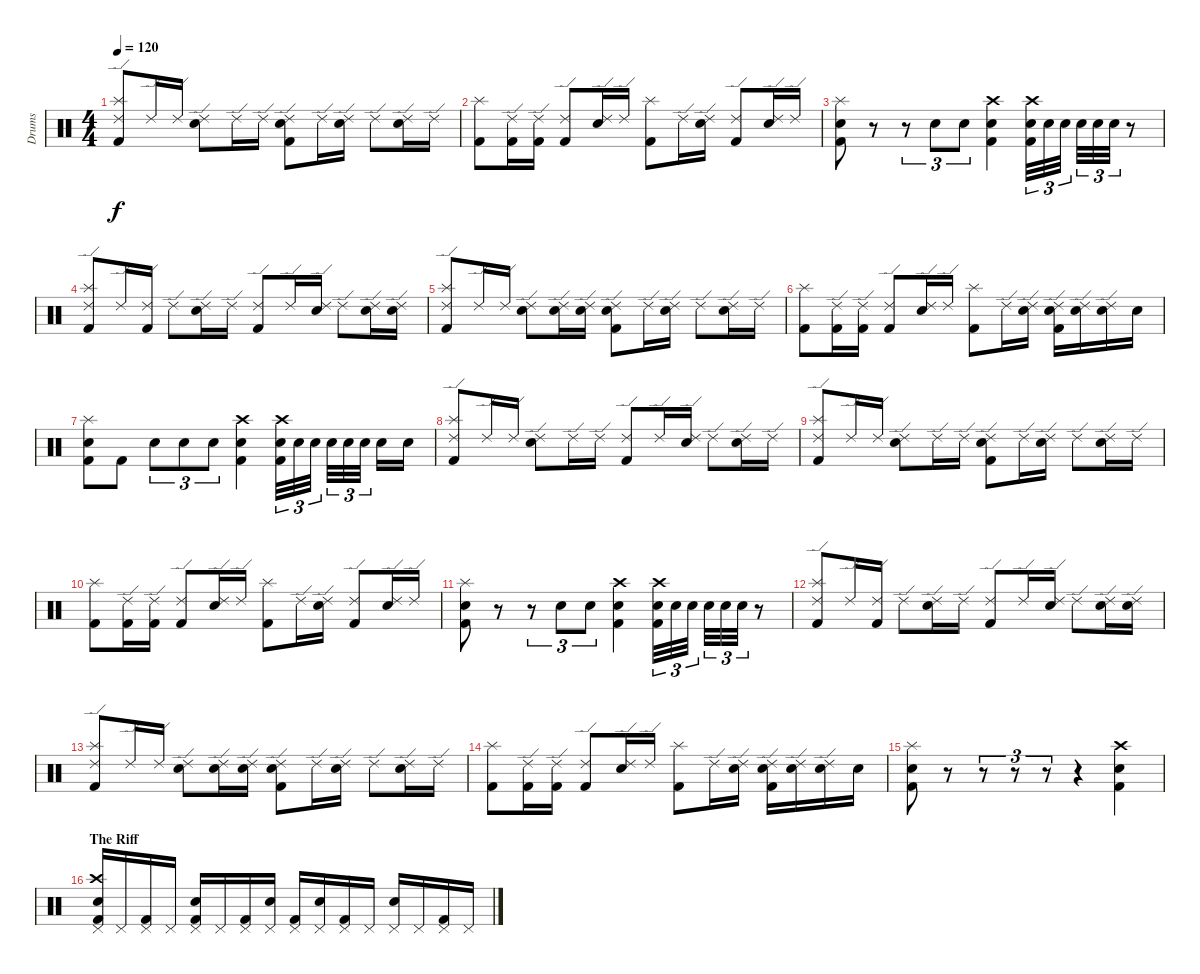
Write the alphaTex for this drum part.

\track ("Drums" "Drums") {instrument percussion}
\staff {score}
\articulation defaults
\ts (4 4)
\tempo 120
\clef neutral
\ks c
("Ride (edge) 2" "Splash (hit)" "Kick (hit) 2").8{dy f} "Ride (edge) 2".16 "Ride (edge) 2".16 ("Ride (edge) 2" "Electric Snare (hit)").8 "Ride (edge) 2".16 "Ride (edge) 2".16 ("Ride (edge) 2" "Electric Snare (hit)" "Kick (hit) 2").8 "Ride (edge) 2".16 ("Ride (edge) 2" "Electric Snare (hit)").16 "Ride (edge) 2".8 ("Ride (edge) 2" "Electric Snare (hit)").16 "Ride (edge) 2".16 |
("Splash (hit)" "Kick (hit) 2").8 ("Ride (edge) 2" "Kick (hit) 2").16 ("Ride (edge) 2" "Kick (hit) 2").16 ("Ride (edge) 2" "Kick (hit) 2").8 ("Ride (edge) 2" "Electric Snare (hit)").16 "Ride (edge) 2".16 ("Splash (hit)" "Kick (hit) 2").8 "Ride (edge) 2".16 ("Ride (edge) 2" "Electric Snare (hit)").16 ("Ride (edge) 2" "Kick (hit) 2").8 ("Ride (edge) 2" "Electric Snare (hit)").16 "Ride (edge) 2".16 |
("Splash (hit)" "Electric Snare (hit)" "Kick (hit) 2").8 r.8 r.8{tu (3 2)} "Electric Snare (hit)".8{tu (3 2)} "Electric Snare (hit)".8{tu (3 2)} ("Crash high (hit)" "Electric Snare (hit)" "Kick (hit) 2").4 ("Crash high (hit)" "Electric Snare (hit)" "Kick (hit) 2").32{tu (3 2)} "Electric Snare (hit)".32{tu (3 2)} "Electric Snare (hit)".32{tu (3 2)} "Electric Snare (hit)".32{tu (3 2)} "Electric Snare (hit)".32{tu (3 2)} "Electric Snare (hit)".32{tu (3 2)} r.8 |
("Ride (edge) 2" "Splash (hit)" "Kick (hit) 2").8 "Ride (edge) 2".16 ("Ride (edge) 2" "Kick (hit) 2").16 "Ride (edge) 2".8 ("Ride (edge) 2" "Electric Snare (hit)").16 "Ride (edge) 2".16 ("Ride (edge) 2" "Kick (hit) 2").8 "Ride (edge) 2".16 ("Ride (edge) 2" "Electric Snare (hit)").16 "Ride (edge) 2".8 ("Ride (edge) 2" "Electric Snare (hit)").16 ("Ride (edge) 2" "Electric Snare (hit)").16 |
("Ride (edge) 2" "Splash (hit)" "Kick (hit) 2").8 "Ride (edge) 2".16 "Ride (edge) 2".16 ("Ride (edge) 2" "Electric Snare (hit)").8 ("Ride (edge) 2" "Electric Snare (hit)").16 ("Ride (edge) 2" "Electric Snare (hit)").16 ("Ride (edge) 2" "Electric Snare (hit)" "Kick (hit) 2").8 "Ride (edge) 2".16 ("Ride (edge) 2" "Electric Snare (hit)").16 "Ride (edge) 2".8 ("Ride (edge) 2" "Electric Snare (hit)").16 "Ride (edge) 2".16 |
("Splash (hit)" "Kick (hit) 2").8 ("Ride (edge) 2" "Kick (hit) 2").16 ("Ride (edge) 2" "Kick (hit) 2").16 ("Ride (edge) 2" "Kick (hit) 2").8 ("Ride (edge) 2" "Electric Snare (hit)").16 "Ride (edge) 2".16 ("Splash (hit)" "Kick (hit) 2").8 "Ride (edge) 2".16 ("Ride (edge) 2" "Electric Snare (hit)").16 ("Ride (edge) 2" "Electric Snare (hit)" "Kick (hit) 2").16 ("Ride (edge) 2" "Electric Snare (hit)").16 ("Ride (edge) 2" "Electric Snare (hit)").16 "Electric Snare (hit)".16 |
("Splash (hit)" "Electric Snare (hit)" "Kick (hit) 2").8 "Kick (hit) 2".8 "Electric Snare (hit)".8{tu (3 2)} "Electric Snare (hit)".8{tu (3 2)} "Electric Snare (hit)".8{tu (3 2)} ("Crash high (hit)" "Electric Snare (hit)" "Kick (hit) 2").4 ("Crash high (hit)" "Electric Snare (hit)" "Kick (hit) 2").32{tu (3 2)} "Electric Snare (hit)".32{tu (3 2)} "Electric Snare (hit)".32{tu (3 2)} "Electric Snare (hit)".32{tu (3 2)} "Electric Snare (hit)".32{tu (3 2)} "Electric Snare (hit)".32{tu (3 2)} "Electric Snare (hit)".16 "Electric Snare (hit)".16 |
("Ride (edge) 2" "Splash (hit)" "Kick (hit) 2").8 "Ride (edge) 2".16 "Ride (edge) 2".16 ("Ride (edge) 2" "Electric Snare (hit)").8 "Ride (edge) 2".16 "Ride (edge) 2".16 ("Ride (edge) 2" "Kick (hit) 2").8 "Ride (edge) 2".16 ("Ride (edge) 2" "Electric Snare (hit)").16 "Ride (edge) 2".8 ("Ride (edge) 2" "Electric Snare (hit)").16 "Ride (edge) 2".16 |
("Ride (edge) 2" "Splash (hit)" "Kick (hit) 2").8 "Ride (edge) 2".16 "Ride (edge) 2".16 ("Ride (edge) 2" "Electric Snare (hit)").8 "Ride (edge) 2".16 "Ride (edge) 2".16 ("Ride (edge) 2" "Electric Snare (hit)" "Kick (hit) 2").8 "Ride (edge) 2".16 ("Ride (edge) 2" "Electric Snare (hit)").16 "Ride (edge) 2".8 ("Ride (edge) 2" "Electric Snare (hit)").16 "Ride (edge) 2".16 |
("Splash (hit)" "Kick (hit) 2").8 ("Ride (edge) 2" "Kick (hit) 2").16 ("Ride (edge) 2" "Kick (hit) 2").16 ("Ride (edge) 2" "Kick (hit) 2").8 ("Ride (edge) 2" "Electric Snare (hit)").16 "Ride (edge) 2".16 ("Splash (hit)" "Kick (hit) 2").8 "Ride (edge) 2".16 ("Ride (edge) 2" "Electric Snare (hit)").16 ("Ride (edge) 2" "Kick (hit) 2").8 ("Ride (edge) 2" "Electric Snare (hit)").16 "Ride (edge) 2".16 |
("Splash (hit)" "Electric Snare (hit)" "Kick (hit) 2").8 r.8 r.8{tu (3 2)} "Electric Snare (hit)".8{tu (3 2)} "Electric Snare (hit)".8{tu (3 2)} ("Crash high (hit)" "Electric Snare (hit)" "Kick (hit) 2").4 ("Crash high (hit)" "Electric Snare (hit)" "Kick (hit) 2").32{tu (3 2)} "Electric Snare (hit)".32{tu (3 2)} "Electric Snare (hit)".32{tu (3 2)} "Electric Snare (hit)".32{tu (3 2)} "Electric Snare (hit)".32{tu (3 2)} "Electric Snare (hit)".32{tu (3 2)} r.8 |
("Ride (edge) 2" "Splash (hit)" "Kick (hit) 2").8 "Ride (edge) 2".16 ("Ride (edge) 2" "Kick (hit) 2").16 "Ride (edge) 2".8 ("Ride (edge) 2" "Electric Snare (hit)").16 "Ride (edge) 2".16 ("Ride (edge) 2" "Kick (hit) 2").8 "Ride (edge) 2".16 ("Ride (edge) 2" "Electric Snare (hit)").16 "Ride (edge) 2".8 ("Ride (edge) 2" "Electric Snare (hit)").16 ("Ride (edge) 2" "Electric Snare (hit)").16 |
("Ride (edge) 2" "Splash (hit)" "Kick (hit) 2").8 "Ride (edge) 2".16 "Ride (edge) 2".16 ("Ride (edge) 2" "Electric Snare (hit)").8 ("Ride (edge) 2" "Electric Snare (hit)").16 ("Ride (edge) 2" "Electric Snare (hit)").16 ("Ride (edge) 2" "Electric Snare (hit)" "Kick (hit) 2").8 "Ride (edge) 2".16 ("Ride (edge) 2" "Electric Snare (hit)").16 "Ride (edge) 2".8 ("Ride (edge) 2" "Electric Snare (hit)").16 "Ride (edge) 2".16 |
("Splash (hit)" "Kick (hit) 2").8 ("Ride (edge) 2" "Kick (hit) 2").16 ("Ride (edge) 2" "Kick (hit) 2").16 ("Ride (edge) 2" "Kick (hit) 2").8 ("Ride (edge) 2" "Electric Snare (hit)").16 "Ride (edge) 2".16 ("Splash (hit)" "Kick (hit) 2").8 "Ride (edge) 2".16 ("Ride (edge) 2" "Electric Snare (hit)").16 ("Ride (edge) 2" "Electric Snare (hit)" "Kick (hit) 2").16 ("Ride (edge) 2" "Electric Snare (hit)").16 ("Ride (edge) 2" "Electric Snare (hit)").16 "Electric Snare (hit)".16 |
("Splash (hit)" "Electric Snare (hit)" "Kick (hit) 2").8 r.8 r.8{tu (3 2)} r.8{tu (3 2)} r.8{tu (3 2)} r.4 ("Crash high (hit)" "Electric Snare (hit)" "Kick (hit) 2").4 |
\section ("" "The Riff")
("Crash high (hit)" "Pedal Hi-Hat (hit)" "Electric Snare (hit)" "Kick (hit) 2").16 "Pedal Hi-Hat (hit)".16 ("Pedal Hi-Hat (hit)" "Kick (hit) 2").16 "Pedal Hi-Hat (hit)".16 ("Pedal Hi-Hat (hit)" "Electric Snare (hit)" "Kick (hit) 2").16 "Pedal Hi-Hat (hit)".16 ("Pedal Hi-Hat (hit)" "Kick (hit) 2").16 ("Pedal Hi-Hat (hit)" "Electric Snare (hit)").16 ("Pedal Hi-Hat (hit)" "Kick (hit) 2").16 ("Pedal Hi-Hat (hit)" "Electric Snare (hit)").16 ("Pedal Hi-Hat (hit)" "Kick (hit) 2").16 "Pedal Hi-Hat (hit)".16 ("Pedal Hi-Hat (hit)" "Electric Snare (hit)").16 "Pedal Hi-Hat (hit)".16 ("Pedal Hi-Hat (hit)" "Kick (hit) 2").16 "Pedal Hi-Hat (hit)".16
